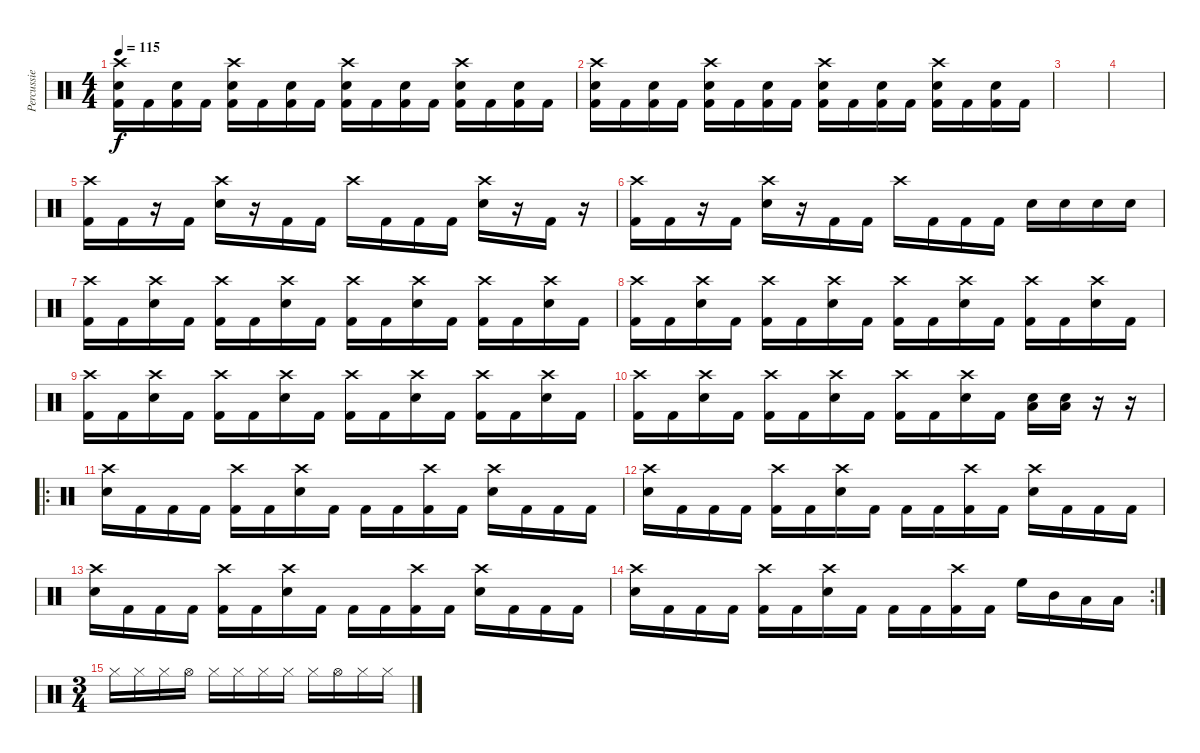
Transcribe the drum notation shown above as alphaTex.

\track ("Percussie" "Percussie") {instrument percussion}
\staff {score}
\articulation defaults
\ts (4 4)
\tempo 115
\clef neutral
\ks c
("Crash high (hit)" "Snare (hit) 2" "Kick (hit) 2").16{dy f} "Kick (hit) 2".16 ("Snare (hit) 2" "Kick (hit) 2").16 "Kick (hit) 2".16 ("Crash high (hit)" "Snare (hit) 2" "Kick (hit) 2").16 "Kick (hit) 2".16 ("Snare (hit) 2" "Kick (hit) 2").16 "Kick (hit) 2".16 ("Crash high (hit)" "Snare (hit) 2" "Kick (hit) 2").16 "Kick (hit) 2".16 ("Snare (hit) 2" "Kick (hit) 2").16 "Kick (hit) 2".16 ("Crash high (hit)" "Snare (hit) 2" "Kick (hit) 2").16 "Kick (hit) 2".16 ("Snare (hit) 2" "Kick (hit) 2").16 "Kick (hit) 2".16 |
("Crash high (hit)" "Snare (hit) 2" "Kick (hit) 2").16 "Kick (hit) 2".16 ("Snare (hit) 2" "Kick (hit) 2").16 "Kick (hit) 2".16 ("Crash high (hit)" "Snare (hit) 2" "Kick (hit) 2").16 "Kick (hit) 2".16 ("Snare (hit) 2" "Kick (hit) 2").16 "Kick (hit) 2".16 ("Crash high (hit)" "Snare (hit) 2" "Kick (hit) 2").16 "Kick (hit) 2".16 ("Snare (hit) 2" "Kick (hit) 2").16 "Kick (hit) 2".16 ("Crash high (hit)" "Snare (hit) 2" "Kick (hit) 2").16 "Kick (hit) 2".16 ("Snare (hit) 2" "Kick (hit) 2").16 "Kick (hit) 2".16 |
|
|
("Crash high (hit)" "Kick (hit) 2").16 "Kick (hit) 2".16 r.16 "Kick (hit) 2".16 ("Crash high (hit)" "Snare (hit) 2").16 r.16 "Kick (hit) 2".16 "Kick (hit) 2".16 "Crash high (hit)".16 "Kick (hit) 2".16 "Kick (hit) 2".16 "Kick (hit) 2".16 ("Crash high (hit)" "Snare (hit) 2").16 r.16 "Kick (hit) 2".16 r.16 |
("Crash high (hit)" "Kick (hit) 2").16 "Kick (hit) 2".16 r.16 "Kick (hit) 2".16 ("Crash high (hit)" "Snare (hit) 2").16 r.16 "Kick (hit) 2".16 "Kick (hit) 2".16 "Crash high (hit)".16 "Kick (hit) 2".16 "Kick (hit) 2".16 "Kick (hit) 2".16 "Snare (hit) 2".16 "Snare (hit) 2".16 "Snare (hit) 2".16 "Snare (hit) 2".16 |
("Crash high (hit)" "Kick (hit) 2").16 "Kick (hit) 2".16 ("Crash high (hit)" "Snare (hit) 2").16 "Kick (hit) 2".16 ("Crash high (hit)" "Kick (hit) 2").16 "Kick (hit) 2".16 ("Crash high (hit)" "Snare (hit) 2").16 "Kick (hit) 2".16 ("Crash high (hit)" "Kick (hit) 2").16 "Kick (hit) 2".16 ("Crash high (hit)" "Snare (hit) 2").16 "Kick (hit) 2".16 ("Crash high (hit)" "Kick (hit) 2").16 "Kick (hit) 2".16 ("Crash high (hit)" "Snare (hit) 2").16 "Kick (hit) 2".16 |
("Crash high (hit)" "Kick (hit) 2").16 "Kick (hit) 2".16 ("Crash high (hit)" "Snare (hit) 2").16 "Kick (hit) 2".16 ("Crash high (hit)" "Kick (hit) 2").16 "Kick (hit) 2".16 ("Crash high (hit)" "Snare (hit) 2").16 "Kick (hit) 2".16 ("Crash high (hit)" "Kick (hit) 2").16 "Kick (hit) 2".16 ("Crash high (hit)" "Snare (hit) 2").16 "Kick (hit) 2".16 ("Crash high (hit)" "Kick (hit) 2").16 "Kick (hit) 2".16 ("Crash high (hit)" "Snare (hit) 2").16 "Kick (hit) 2".16 |
("Crash high (hit)" "Kick (hit) 2").16 "Kick (hit) 2".16 ("Crash high (hit)" "Snare (hit) 2").16 "Kick (hit) 2".16 ("Crash high (hit)" "Kick (hit) 2").16 "Kick (hit) 2".16 ("Crash high (hit)" "Snare (hit) 2").16 "Kick (hit) 2".16 ("Crash high (hit)" "Kick (hit) 2").16 "Kick (hit) 2".16 ("Crash high (hit)" "Snare (hit) 2").16 "Kick (hit) 2".16 ("Crash high (hit)" "Kick (hit) 2").16 "Kick (hit) 2".16 ("Crash high (hit)" "Snare (hit) 2").16 "Kick (hit) 2".16 |
("Crash high (hit)" "Kick (hit) 2").16 "Kick (hit) 2".16 ("Crash high (hit)" "Snare (hit) 2").16 "Kick (hit) 2".16 ("Crash high (hit)" "Kick (hit) 2").16 "Kick (hit) 2".16 ("Crash high (hit)" "Snare (hit) 2").16 "Kick (hit) 2".16 ("Crash high (hit)" "Kick (hit) 2").16 "Kick (hit) 2".16 ("Crash high (hit)" "Snare (hit) 2").16 "Kick (hit) 2".16 ("Snare (hit) 2" "Low Floor Tom (hit)").16 ("Snare (hit) 2" "Low Floor Tom (hit)").16 r.16 r.16 |
\ro
("Snare (hit) 2" "Crash high (hit)").16 "Kick (hit) 2".16 "Kick (hit) 2".16 "Kick (hit) 2".16 ("Kick (hit) 2" "Crash high (hit)").16 "Kick (hit) 2".16 ("Snare (hit) 2" "Crash high (hit)").16 "Kick (hit) 2".16 "Kick (hit) 2".16 "Kick (hit) 2".16 ("Kick (hit) 2" "Crash high (hit)").16 "Kick (hit) 2".16 ("Snare (hit) 2" "Crash high (hit)").16 "Kick (hit) 2".16 "Kick (hit) 2".16 "Kick (hit) 2".16 |
("Snare (hit) 2" "Crash high (hit)").16 "Kick (hit) 2".16 "Kick (hit) 2".16 "Kick (hit) 2".16 ("Kick (hit) 2" "Crash high (hit)").16 "Kick (hit) 2".16 ("Snare (hit) 2" "Crash high (hit)").16 "Kick (hit) 2".16 "Kick (hit) 2".16 "Kick (hit) 2".16 ("Kick (hit) 2" "Crash high (hit)").16 "Kick (hit) 2".16 ("Snare (hit) 2" "Crash high (hit)").16 "Kick (hit) 2".16 "Kick (hit) 2".16 "Kick (hit) 2".16 |
("Snare (hit) 2" "Crash high (hit)").16 "Kick (hit) 2".16 "Kick (hit) 2".16 "Kick (hit) 2".16 ("Kick (hit) 2" "Crash high (hit)").16 "Kick (hit) 2".16 ("Snare (hit) 2" "Crash high (hit)").16 "Kick (hit) 2".16 "Kick (hit) 2".16 "Kick (hit) 2".16 ("Kick (hit) 2" "Crash high (hit)").16 "Kick (hit) 2".16 ("Snare (hit) 2" "Crash high (hit)").16 "Kick (hit) 2".16 "Kick (hit) 2".16 "Kick (hit) 2".16 |
\rc 2
("Snare (hit) 2" "Crash high (hit)").16 "Kick (hit) 2".16 "Kick (hit) 2".16 "Kick (hit) 2".16 ("Kick (hit) 2" "Crash high (hit)").16 "Kick (hit) 2".16 ("Snare (hit) 2" "Crash high (hit)").16 "Kick (hit) 2".16 "Kick (hit) 2".16 "Kick (hit) 2".16 ("Kick (hit) 2" "Crash high (hit)").16 "Kick (hit) 2".16 "High Floor Tom (hit)".16 "Mid Tom (hit)".16 "Low Tom (hit)".16 "Low Floor Tom (hit)".16 |
\ts (3 4)
"Hi-Hat (closed)".16 "Hi-Hat (closed)".16 "Hi-Hat (closed)".16 "Hi-Hat (open)".16 "Hi-Hat (closed)".16 "Hi-Hat (closed)".16 "Hi-Hat (closed)".16 "Hi-Hat (closed)".16 "Hi-Hat (closed)".16 "Hi-Hat (open)".16 "Hi-Hat (closed)".16 "Hi-Hat (closed)".16
